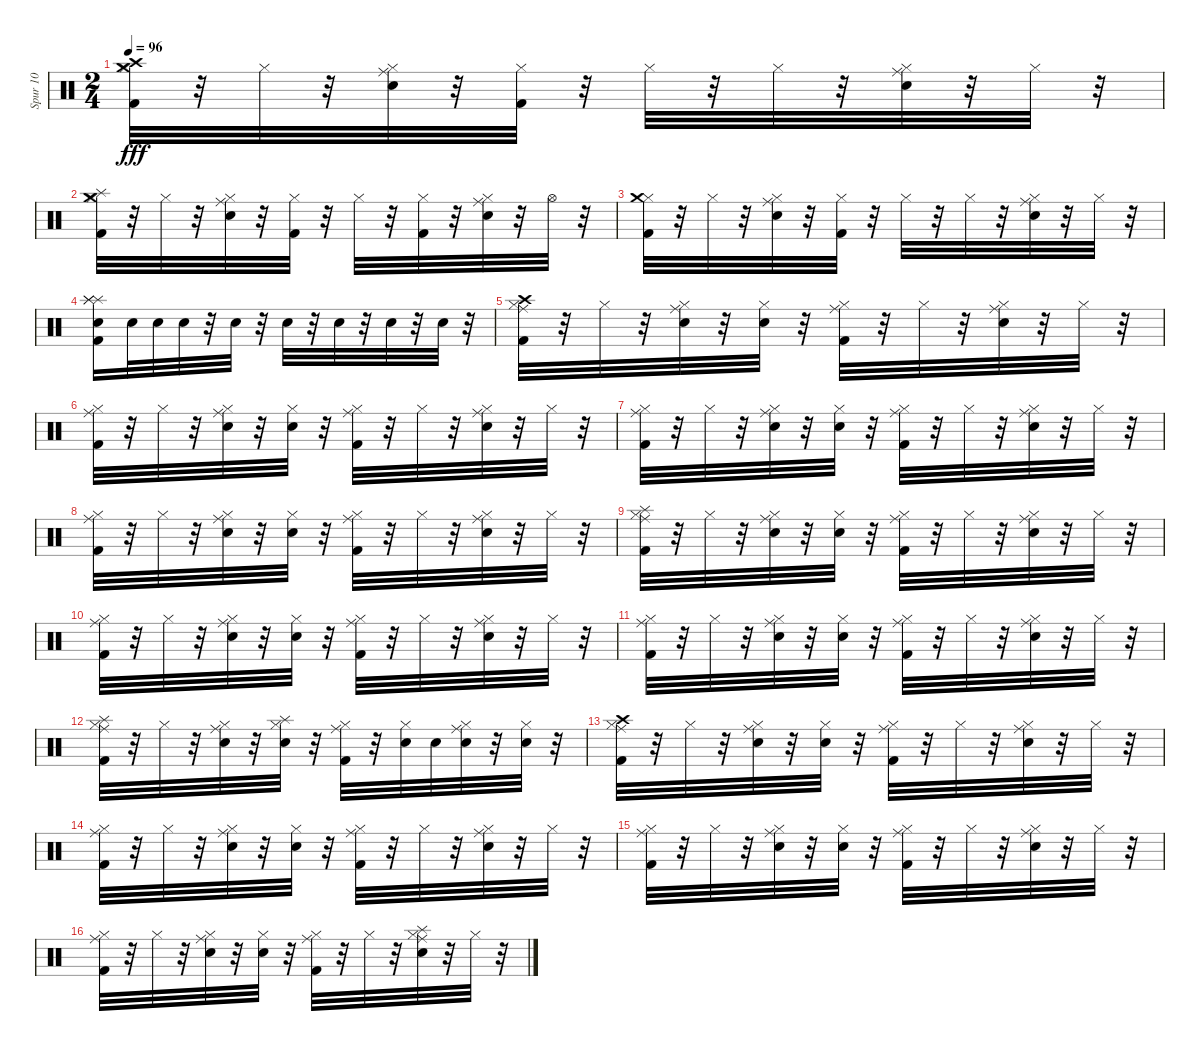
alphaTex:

\track ("Spur 10" "Spur 10") {instrument percussion}
\staff {score}
\articulation defaults
\ts (2 4)
\tempo 96
\clef neutral
\ks c
("Crash medium (hit)" "Crash high (hit)" "Hi-Hat (closed)" "Kick (hit) 2").32{dy fff} r.32 "Hi-Hat (closed)".32 r.32 ("Hi-Hat (closed)" "Electric Snare (hit)" "Ride (middle)").32 r.32 ("Hi-Hat (closed)" "Kick (hit) 2").32 r.32 "Hi-Hat (closed)".32 r.32 "Hi-Hat (closed)".32 r.32 ("Hi-Hat (closed)" "Electric Snare (hit)" "Ride (middle)").32 r.32 "Hi-Hat (closed)".32 r.32 |
("Hi-Hat (closed)" "Splash (hit)" "Crash medium (hit)" "Kick (hit) 2").32 r.32 "Hi-Hat (closed)".32 r.32 ("Hi-Hat (closed)" "Electric Snare (hit)" "Ride (middle)").32 r.32 ("Hi-Hat (closed)" "Kick (hit) 2").32 r.32 "Hi-Hat (closed)".32 r.32 ("Hi-Hat (closed)" "Kick (hit) 2").32 r.32 ("Hi-Hat (closed)" "Electric Snare (hit)" "Ride (middle)").32 r.32 "Hi-Hat (open)".32 r.32 |
("Hi-Hat (closed)" "Crash medium (hit)" "Kick (hit) 2").32 r.32 "Hi-Hat (closed)".32 r.32 ("Hi-Hat (closed)" "Ride (middle)" "Electric Snare (hit)").32 r.32 ("Hi-Hat (closed)" "Kick (hit) 2").32 r.32 "Hi-Hat (closed)".32 r.32 "Hi-Hat (closed)".32 r.32 ("Hi-Hat (closed)" "Ride (middle)" "Electric Snare (hit)").32 r.32 "Hi-Hat (closed)".32 r.32 |
("Splash (hit)" "Splash (hit)" "Kick (hit) 2" "Electric Snare (hit)" "Splash (hit)").16 "Electric Snare (hit)".32 "Electric Snare (hit)".32 "Electric Snare (hit)".32 r.32 "Electric Snare (hit)".32 r.32 "Electric Snare (hit)".32 r.32 "Electric Snare (hit)".32 r.32 "Electric Snare (hit)".32 r.32 "Electric Snare (hit)".32 r.32 |
("Hi-Hat (closed)" "Crash high (hit)" "Kick (hit) 2" "Ride (middle)").32 r.32 "Hi-Hat (closed)".32 r.32 ("Hi-Hat (closed)" "Ride (middle)" "Electric Snare (hit)").32 r.32 ("Hi-Hat (closed)" "Electric Snare (hit)").32 r.32 ("Hi-Hat (closed)" "Kick (hit) 2" "Ride (middle)").32 r.32 "Hi-Hat (closed)".32 r.32 ("Hi-Hat (closed)" "Ride (middle)" "Electric Snare (hit)").32 r.32 "Hi-Hat (closed)".32 r.32 |
("Hi-Hat (closed)" "Kick (hit) 2" "Ride (middle)").32 r.32 "Hi-Hat (closed)".32 r.32 ("Hi-Hat (closed)" "Ride (middle)" "Electric Snare (hit)").32 r.32 ("Hi-Hat (closed)" "Electric Snare (hit)").32 r.32 ("Hi-Hat (closed)" "Kick (hit) 2" "Ride (middle)").32 r.32 "Hi-Hat (closed)".32 r.32 ("Hi-Hat (closed)" "Ride (middle)" "Electric Snare (hit)").32 r.32 "Hi-Hat (closed)".32 r.32 |
("Hi-Hat (closed)" "Ride (middle)" "Kick (hit) 2").32 r.32 "Hi-Hat (closed)".32 r.32 ("Hi-Hat (closed)" "Ride (middle)" "Electric Snare (hit)").32 r.32 ("Hi-Hat (closed)" "Electric Snare (hit)").32 r.32 ("Hi-Hat (closed)" "Ride (middle)" "Kick (hit) 2").32 r.32 "Hi-Hat (closed)".32 r.32 ("Hi-Hat (closed)" "Ride (middle)" "Electric Snare (hit)").32 r.32 "Hi-Hat (closed)".32 r.32 |
("Hi-Hat (closed)" "Ride (middle)" "Kick (hit) 2").32 r.32 "Hi-Hat (closed)".32 r.32 ("Hi-Hat (closed)" "Ride (middle)" "Electric Snare (hit)").32 r.32 ("Hi-Hat (closed)" "Electric Snare (hit)").32 r.32 ("Hi-Hat (closed)" "Ride (middle)" "Kick (hit) 2").32 r.32 "Hi-Hat (closed)".32 r.32 ("Hi-Hat (closed)" "Ride (middle)" "Electric Snare (hit)").32 r.32 "Hi-Hat (closed)".32 r.32 |
("Hi-Hat (closed)" "Splash (hit)" "Kick (hit) 2" "Ride (middle)").32 r.32 "Hi-Hat (closed)".32 r.32 ("Hi-Hat (closed)" "Ride (middle)" "Electric Snare (hit)").32 r.32 ("Hi-Hat (closed)" "Electric Snare (hit)").32 r.32 ("Hi-Hat (closed)" "Kick (hit) 2" "Ride (middle)").32 r.32 "Hi-Hat (closed)".32 r.32 ("Hi-Hat (closed)" "Ride (middle)" "Electric Snare (hit)").32 r.32 "Hi-Hat (closed)".32 r.32 |
("Hi-Hat (closed)" "Kick (hit) 2" "Ride (middle)").32 r.32 "Hi-Hat (closed)".32 r.32 ("Hi-Hat (closed)" "Ride (middle)" "Electric Snare (hit)").32 r.32 ("Hi-Hat (closed)" "Electric Snare (hit)").32 r.32 ("Hi-Hat (closed)" "Kick (hit) 2" "Ride (middle)").32 r.32 "Hi-Hat (closed)".32 r.32 ("Hi-Hat (closed)" "Ride (middle)" "Electric Snare (hit)").32 r.32 "Hi-Hat (closed)".32 r.32 |
("Hi-Hat (closed)" "Ride (middle)" "Kick (hit) 2").32 r.32 "Hi-Hat (closed)".32 r.32 ("Hi-Hat (closed)" "Ride (middle)" "Electric Snare (hit)").32 r.32 ("Hi-Hat (closed)" "Electric Snare (hit)").32 r.32 ("Hi-Hat (closed)" "Ride (middle)" "Kick (hit) 2").32 r.32 "Hi-Hat (closed)".32 r.32 ("Hi-Hat (closed)" "Ride (middle)" "Electric Snare (hit)").32 r.32 "Hi-Hat (closed)".32 r.32 |
("Hi-Hat (closed)" "Splash (hit)" "Ride (middle)" "Kick (hit) 2").32 r.32 "Hi-Hat (closed)".32 r.32 ("Hi-Hat (closed)" "Ride (middle)" "Electric Snare (hit)").32 r.32 ("Splash (hit)" "Hi-Hat (closed)" "Electric Snare (hit)").32 r.32 ("Hi-Hat (closed)" "Ride (middle)" "Kick (hit) 2").32 r.32 ("Hi-Hat (closed)" "Electric Snare (hit)").32 "Electric Snare (hit)".32 ("Hi-Hat (closed)" "Ride (middle)" "Electric Snare (hit)").32 r.32 ("Hi-Hat (closed)" "Electric Snare (hit)").32 r.32 |
("Hi-Hat (closed)" "Crash high (hit)" "Kick (hit) 2" "Ride (middle)").32 r.32 "Hi-Hat (closed)".32 r.32 ("Hi-Hat (closed)" "Ride (middle)" "Electric Snare (hit)").32 r.32 ("Hi-Hat (closed)" "Electric Snare (hit)").32 r.32 ("Hi-Hat (closed)" "Kick (hit) 2" "Ride (middle)").32 r.32 "Hi-Hat (closed)".32 r.32 ("Hi-Hat (closed)" "Ride (middle)" "Electric Snare (hit)").32 r.32 "Hi-Hat (closed)".32 r.32 |
("Hi-Hat (closed)" "Kick (hit) 2" "Ride (middle)").32 r.32 "Hi-Hat (closed)".32 r.32 ("Hi-Hat (closed)" "Ride (middle)" "Electric Snare (hit)").32 r.32 ("Hi-Hat (closed)" "Electric Snare (hit)").32 r.32 ("Hi-Hat (closed)" "Kick (hit) 2" "Ride (middle)").32 r.32 "Hi-Hat (closed)".32 r.32 ("Hi-Hat (closed)" "Ride (middle)" "Electric Snare (hit)").32 r.32 "Hi-Hat (closed)".32 r.32 |
("Hi-Hat (closed)" "Ride (middle)" "Kick (hit) 2").32 r.32 "Hi-Hat (closed)".32 r.32 ("Hi-Hat (closed)" "Ride (middle)" "Electric Snare (hit)").32 r.32 ("Hi-Hat (closed)" "Electric Snare (hit)").32 r.32 ("Hi-Hat (closed)" "Ride (middle)" "Kick (hit) 2").32 r.32 "Hi-Hat (closed)".32 r.32 ("Hi-Hat (closed)" "Ride (middle)" "Electric Snare (hit)").32 r.32 "Hi-Hat (closed)".32 r.32 |
("Hi-Hat (closed)" "Ride (middle)" "Kick (hit) 2").32 r.32 "Hi-Hat (closed)".32 r.32 ("Hi-Hat (closed)" "Ride (middle)" "Electric Snare (hit)").32 r.32 ("Hi-Hat (closed)" "Electric Snare (hit)").32 r.32 ("Hi-Hat (closed)" "Ride (middle)" "Kick (hit) 2").32 r.32 "Hi-Hat (closed)".32 r.32 ("Hi-Hat (closed)" "Splash (hit)" "Ride (middle)" "Electric Snare (hit)").32 r.32 "Hi-Hat (closed)".32 r.32
